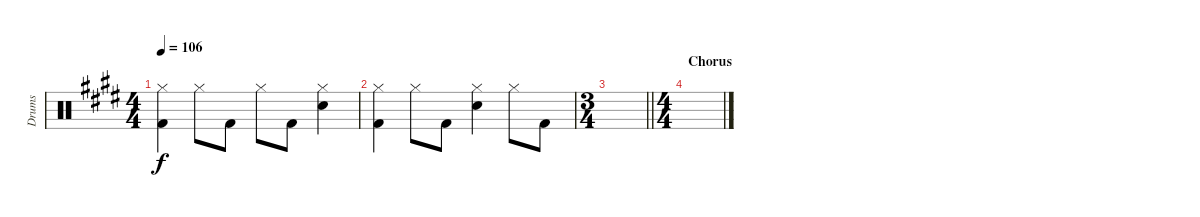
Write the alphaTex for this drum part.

\track ("Drums" "Drums") {instrument percussion}
\staff {score}
\articulation defaults
\ts (4 4)
\tempo 106
\clef neutral
\ks e
("Hi-Hat (closed)" "Kick (hit) 2").4{dy f} "Hi-Hat (closed)".8 "Kick (hit) 2".8 "Hi-Hat (closed)".8 "Kick (hit) 2".8 ("Hi-Hat (closed)" "Snare (hit) 2").4 |
("Hi-Hat (closed)" "Kick (hit) 2").4 "Hi-Hat (closed)".8 "Kick (hit) 2".8 ("Hi-Hat (closed)" "Snare (hit) 2").4 "Hi-Hat (closed)".8 "Kick (hit) 2".8 |
\ts (3 4)
\barLineRight lightlight
|
\ts (4 4)
\section ("" "Chorus")
